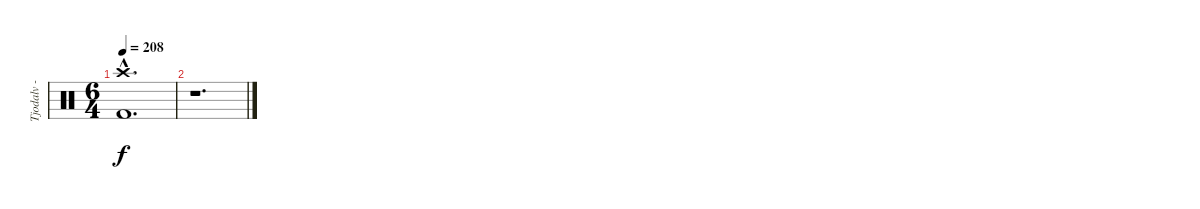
\track ("Tjodalv - Drums" "Tjodalv - ") {instrument percussion}
\staff {score}
\articulation defaults
\ts (6 4)
\tempo 208
\clef neutral
\ks c
("Kick (hit) 2"{hac} "Crash high (hit)"{hac}).1{d dy f} |
r.1{d}
